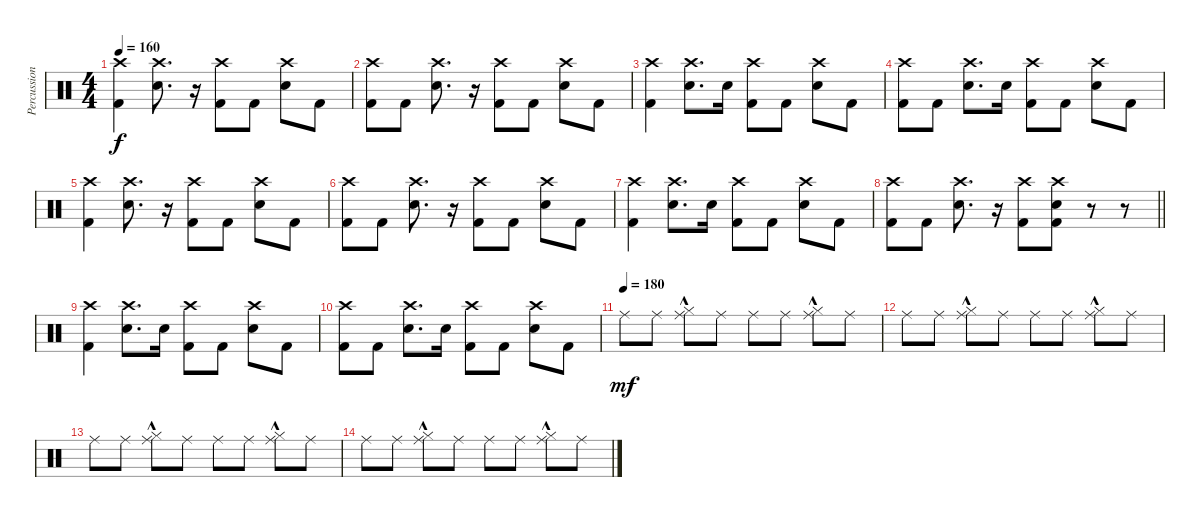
\track ("Percussion" "Percussion") {instrument percussion}
\staff {score}
\articulation defaults
\ts (4 4)
\tempo 160
\clef neutral
\ks c
("Crash high (hit)" "Kick (hit) 2").4{dy f} ("Crash high (hit)" "Electric Snare (hit)").8{d} r.16 ("Crash high (hit)" "Kick (hit) 2").8 "Kick (hit) 2".8 ("Crash high (hit)" "Electric Snare (hit)").8 "Kick (hit) 2".8 |
("Crash high (hit)" "Kick (hit) 2").8 "Kick (hit) 2".8 ("Crash high (hit)" "Electric Snare (hit)").8{d} r.16 ("Crash high (hit)" "Kick (hit) 2").8 "Kick (hit) 2".8 ("Crash high (hit)" "Electric Snare (hit)").8 "Kick (hit) 2".8 |
("Crash high (hit)" "Kick (hit) 2").4 ("Crash high (hit)" "Electric Snare (hit)").8{d} "Electric Snare (hit)".16 ("Crash high (hit)" "Kick (hit) 2").8 "Kick (hit) 2".8 ("Crash high (hit)" "Electric Snare (hit)").8 "Kick (hit) 2".8 |
("Crash high (hit)" "Kick (hit) 2").8 "Kick (hit) 2".8 ("Crash high (hit)" "Electric Snare (hit)").8{d} "Electric Snare (hit)".16 ("Crash high (hit)" "Kick (hit) 2").8 "Kick (hit) 2".8 ("Crash high (hit)" "Electric Snare (hit)").8 "Kick (hit) 2".8 |
("Crash high (hit)" "Kick (hit) 2").4 ("Crash high (hit)" "Electric Snare (hit)").8{d} r.16 ("Crash high (hit)" "Kick (hit) 2").8 "Kick (hit) 2".8 ("Crash high (hit)" "Electric Snare (hit)").8 "Kick (hit) 2".8 |
("Crash high (hit)" "Kick (hit) 2").8 "Kick (hit) 2".8 ("Crash high (hit)" "Electric Snare (hit)").8{d} r.16 ("Crash high (hit)" "Kick (hit) 2").8 "Kick (hit) 2".8 ("Crash high (hit)" "Electric Snare (hit)").8 "Kick (hit) 2".8 |
("Crash high (hit)" "Kick (hit) 2").4 ("Crash high (hit)" "Electric Snare (hit)").8{d} "Electric Snare (hit)".16 ("Crash high (hit)" "Kick (hit) 2").8 "Kick (hit) 2".8 ("Crash high (hit)" "Electric Snare (hit)").8 "Kick (hit) 2".8 |
\barLineRight lightlight
("Crash high (hit)" "Kick (hit) 2").8 "Kick (hit) 2".8 ("Crash high (hit)" "Electric Snare (hit)").8{d} r.16 ("Crash high (hit)" "Kick (hit) 2").8 ("Crash high (hit)" "Electric Snare (hit)" "Kick (hit) 2").8 r.8 r.8 |
("Crash high (hit)" "Kick (hit) 2").4{volume 16} ("Crash high (hit)" "Electric Snare (hit)").8{d} "Electric Snare (hit)".16 ("Crash high (hit)" "Kick (hit) 2").8 "Kick (hit) 2".8 ("Crash high (hit)" "Electric Snare (hit)").8 "Kick (hit) 2".8 |
("Crash high (hit)" "Kick (hit) 2").8 "Kick (hit) 2".8 ("Crash high (hit)" "Electric Snare (hit)").8{d} "Electric Snare (hit)".16 ("Crash high (hit)" "Kick (hit) 2").8 "Kick (hit) 2".8 ("Crash high (hit)" "Electric Snare (hit)").8 "Kick (hit) 2".8 |
\tempo (180)
"Ride (middle)".8{dy mf} "Ride (middle)".8{volume 1} ("Ride (middle)"{hac} "Hi-Hat (closed)").8 "Ride (middle)".8 "Ride (middle)".8 "Ride (middle)".8 ("Ride (middle)"{hac} "Hi-Hat (closed)").8 "Ride (middle)".8 |
"Ride (middle)".8 "Ride (middle)".8 ("Ride (middle)"{hac} "Hi-Hat (closed)").8 "Ride (middle)".8 "Ride (middle)".8 "Ride (middle)".8 ("Ride (middle)"{hac} "Hi-Hat (closed)").8 "Ride (middle)".8 |
"Ride (middle)".8 "Ride (middle)".8 ("Ride (middle)"{hac} "Hi-Hat (closed)").8 "Ride (middle)".8 "Ride (middle)".8 "Ride (middle)".8 ("Ride (middle)"{hac} "Hi-Hat (closed)").8 "Ride (middle)".8 |
"Ride (middle)".8 "Ride (middle)".8 ("Ride (middle)"{hac} "Hi-Hat (closed)").8 "Ride (middle)".8 "Ride (middle)".8 "Ride (middle)".8 ("Ride (middle)"{hac} "Hi-Hat (closed)").8 "Ride (middle)".8
